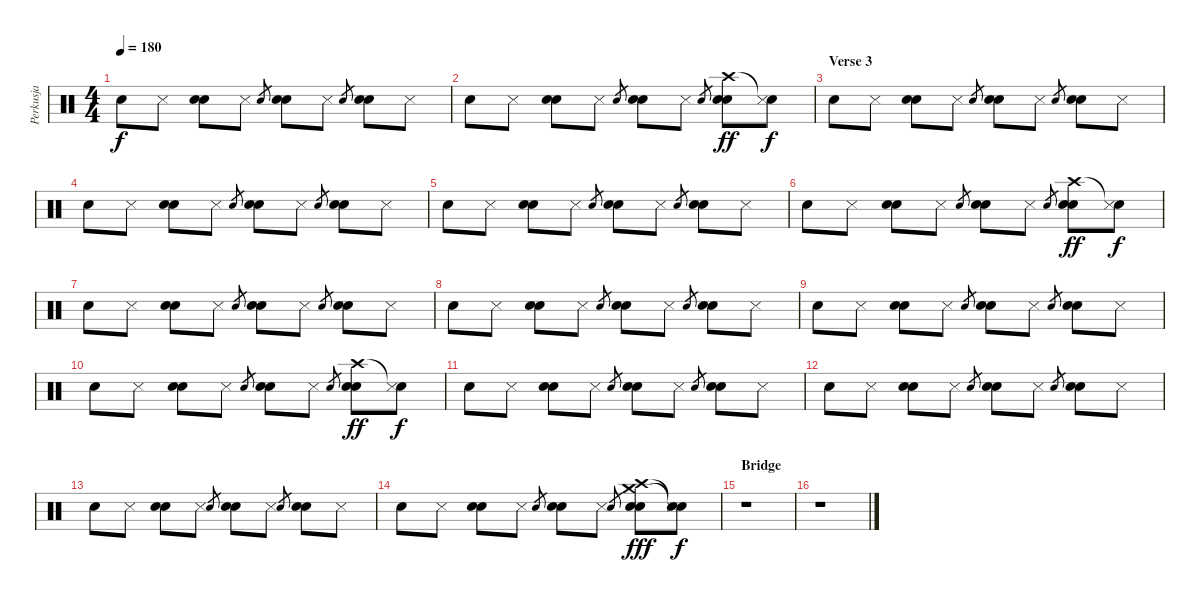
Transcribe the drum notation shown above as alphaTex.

\track ("Perkusja" "Perkusja") {instrument percussion}
\staff {score}
\articulation defaults
\ts (4 4)
\tempo 180
\clef neutral
\ks c "Snare (hit) 2".8{dy f} "Snare (side stick) 3".8
("Electric Snare (hit)" "Metronome (bell)").8 "Snare (side stick) 3".8 "Snare (hit) 2".8{gr} ("Snare (hit) 2" "Metronome (bell)").8 "Snare (side stick) 3".8 "Electric Snare (hit)".8{gr} ("Electric Snare (hit)" "Metronome (bell)").8 "Snare (side stick) 3".8 |
"Snare (hit) 2".8 "Snare (side stick) 3".8 ("Electric Snare (hit)" "Metronome (bell)").8 "Snare (side stick) 3".8 "Snare (hit) 2".8{gr} ("Snare (hit) 2" "Metronome (bell)").8 "Snare (side stick) 3".8 "Electric Snare (hit)".8{gr} ("Crash high (hit)" "Electric Snare (hit)" "Metronome (bell)").8{dy ff} ("Snare (hit)"{t} "Snare (side stick) 3").8{dy f} |
\section ("" "Verse 3")
"Snare (hit) 2".8 "Snare (side stick) 3".8 ("Electric Snare (hit)" "Metronome (bell)").8 "Snare (side stick) 3".8 "Snare (hit) 2".8{gr} ("Snare (hit) 2" "Metronome (bell)").8 "Snare (side stick) 3".8 "Electric Snare (hit)".8{gr} ("Electric Snare (hit)" "Metronome (bell)").8 "Snare (side stick) 3".8 |
"Snare (hit) 2".8 "Snare (side stick) 3".8 ("Electric Snare (hit)" "Metronome (bell)").8 "Snare (side stick) 3".8 "Snare (hit) 2".8{gr} ("Snare (hit) 2" "Metronome (bell)").8 "Snare (side stick) 3".8 "Electric Snare (hit)".8{gr} ("Electric Snare (hit)" "Metronome (bell)").8 "Snare (side stick) 3".8 |
"Snare (hit) 2".8 "Snare (side stick) 3".8 ("Electric Snare (hit)" "Metronome (bell)").8 "Snare (side stick) 3".8 "Snare (hit) 2".8{gr} ("Snare (hit) 2" "Metronome (bell)").8 "Snare (side stick) 3".8 "Electric Snare (hit)".8{gr} ("Electric Snare (hit)" "Metronome (bell)").8 "Snare (side stick) 3".8 |
"Snare (hit) 2".8 "Snare (side stick) 3".8 ("Electric Snare (hit)" "Metronome (bell)").8 "Snare (side stick) 3".8 "Snare (hit) 2".8{gr} ("Snare (hit) 2" "Metronome (bell)").8 "Snare (side stick) 3".8 "Electric Snare (hit)".8{gr} ("Crash high (hit)" "Electric Snare (hit)" "Metronome (bell)").8{dy ff} ("Snare (hit)"{t} "Snare (side stick) 3").8{dy f} |
"Snare (hit) 2".8 "Snare (side stick) 3".8 ("Electric Snare (hit)" "Metronome (bell)").8 "Snare (side stick) 3".8 "Snare (hit) 2".8{gr} ("Snare (hit) 2" "Metronome (bell)").8 "Snare (side stick) 3".8 "Electric Snare (hit)".8{gr} ("Electric Snare (hit)" "Metronome (bell)").8 "Snare (side stick) 3".8 |
"Snare (hit) 2".8 "Snare (side stick) 3".8 ("Electric Snare (hit)" "Metronome (bell)").8 "Snare (side stick) 3".8 "Snare (hit) 2".8{gr} ("Snare (hit) 2" "Metronome (bell)").8 "Snare (side stick) 3".8 "Electric Snare (hit)".8{gr} ("Electric Snare (hit)" "Metronome (bell)").8 "Snare (side stick) 3".8 |
"Snare (hit) 2".8 "Snare (side stick) 3".8 ("Electric Snare (hit)" "Metronome (bell)").8 "Snare (side stick) 3".8 "Snare (hit) 2".8{gr} ("Snare (hit) 2" "Metronome (bell)").8 "Snare (side stick) 3".8 "Electric Snare (hit)".8{gr} ("Electric Snare (hit)" "Metronome (bell)").8 "Snare (side stick) 3".8 |
"Snare (hit) 2".8 "Snare (side stick) 3".8 ("Electric Snare (hit)" "Metronome (bell)").8 "Snare (side stick) 3".8 "Snare (hit) 2".8{gr} ("Snare (hit) 2" "Metronome (bell)").8 "Snare (side stick) 3".8 "Electric Snare (hit)".8{gr} ("Crash high (hit)" "Electric Snare (hit)" "Metronome (bell)").8{dy ff} ("Snare (hit)"{t} "Snare (side stick) 3").8{dy f} |
"Snare (hit) 2".8 "Snare (side stick) 3".8 ("Electric Snare (hit)" "Metronome (bell)").8 "Snare (side stick) 3".8 "Snare (hit) 2".8{gr} ("Snare (hit) 2" "Metronome (bell)").8 "Snare (side stick) 3".8 "Electric Snare (hit)".8{gr} ("Electric Snare (hit)" "Metronome (bell)").8 "Snare (side stick) 3".8 |
"Snare (hit) 2".8 "Snare (side stick) 3".8 ("Electric Snare (hit)" "Metronome (bell)").8 "Snare (side stick) 3".8 "Snare (hit) 2".8{gr} ("Snare (hit) 2" "Metronome (bell)").8 "Snare (side stick) 3".8 "Electric Snare (hit)".8{gr} ("Electric Snare (hit)" "Metronome (bell)").8 "Snare (side stick) 3".8 |
"Snare (hit) 2".8 "Snare (side stick) 3".8 ("Electric Snare (hit)" "Metronome (bell)").8 "Snare (side stick) 3".8 "Snare (hit) 2".8{gr} ("Snare (hit) 2" "Metronome (bell)").8 "Snare (side stick) 3".8 "Electric Snare (hit)".8{gr} ("Electric Snare (hit)" "Metronome (bell)").8 "Snare (side stick) 3".8 |
"Snare (hit) 2".8 "Snare (side stick) 3".8 ("Electric Snare (hit)" "Metronome (bell)").8 "Snare (side stick) 3".8 "Snare (hit) 2".8{gr} ("Snare (hit) 2" "Metronome (bell)").8 "Snare (side stick) 3".8 "Electric Snare (hit)".8{gr} ("Crash high (hit)" "Crash medium (hit)" "Electric Snare (hit)" "Metronome (bell)").8{dy fff} ("Snare (hit)"{t} "Snare (hit)"{t} "Snare (side stick) 3").8{dy f} |
\section ("" "Bridge")
r.1 |
r.1
